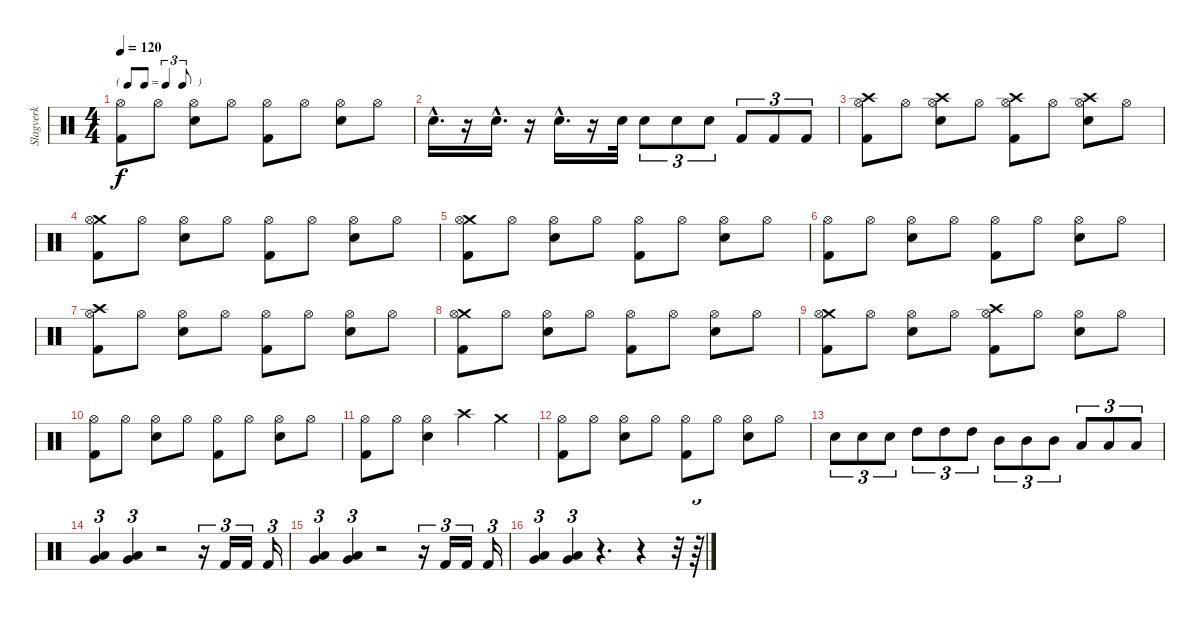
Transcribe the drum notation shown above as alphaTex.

\track ("Slagverk" "Slagverk") {instrument percussion}
\staff {score}
\articulation defaults
\ts (4 4)
\tf triplet8th
\tempo 120
\clef neutral
\ks c
("Hi-Hat (open)" "Kick (hit) 2").8{dy f} "Hi-Hat (open)".8 ("Electric Snare (hit)" "Hi-Hat (open)").8 "Hi-Hat (open)".8 ("Hi-Hat (open)" "Kick (hit) 2").8 "Hi-Hat (open)".8 ("Electric Snare (hit)" "Hi-Hat (open)").8 "Hi-Hat (open)".8 |
"Electric Snare (hit)"{hac}.16{d} r.16 "Electric Snare (hit)"{hac}.16{d} r.16 "Electric Snare (hit)"{hac}.16{d} r.16 "Electric Snare (hit)".32 "Electric Snare (hit)".8{tu (3 2)} "Electric Snare (hit)".8{tu (3 2)} "Electric Snare (hit)".8{tu (3 2)} "Kick (hit) 2".8{tu (3 2)} "Kick (hit) 2".8{tu (3 2)} "Kick (hit) 2".8{tu (3 2)} |
("Crash high (hit)" "Hi-Hat (open)" "Kick (hit) 2").8 "Hi-Hat (open)".8 ("Crash high (hit)" "Electric Snare (hit)" "Hi-Hat (open)").8 "Hi-Hat (open)".8 ("Crash high (hit)" "Hi-Hat (open)" "Kick (hit) 2").8 "Hi-Hat (open)".8 ("Crash high (hit)" "Electric Snare (hit)" "Hi-Hat (open)").8 "Hi-Hat (open)".8 |
("Crash medium (hit)" "Hi-Hat (open)" "Kick (hit) 2").8 "Hi-Hat (open)".8 ("Electric Snare (hit)" "Hi-Hat (open)").8 "Hi-Hat (open)".8 ("Hi-Hat (open)" "Kick (hit) 2").8 "Hi-Hat (open)".8 ("Electric Snare (hit)" "Hi-Hat (open)").8 "Hi-Hat (open)".8 |
("Crash medium (hit)" "Hi-Hat (open)" "Kick (hit) 2").8 "Hi-Hat (open)".8 ("Electric Snare (hit)" "Hi-Hat (open)").8 "Hi-Hat (open)".8 ("Hi-Hat (open)" "Kick (hit) 2").8 "Hi-Hat (open)".8 ("Electric Snare (hit)" "Hi-Hat (open)").8 "Hi-Hat (open)".8 |
("Hi-Hat (open)" "Kick (hit) 2").8 "Hi-Hat (open)".8 ("Electric Snare (hit)" "Hi-Hat (open)").8 "Hi-Hat (open)".8 ("Hi-Hat (open)" "Kick (hit) 2").8 "Hi-Hat (open)".8 ("Electric Snare (hit)" "Hi-Hat (open)").8 "Hi-Hat (open)".8 |
("Crash high (hit)" "Hi-Hat (open)" "Kick (hit) 2").8 "Hi-Hat (open)".8 ("Electric Snare (hit)" "Hi-Hat (open)").8 "Hi-Hat (open)".8 ("Hi-Hat (open)" "Kick (hit) 2").8 "Hi-Hat (open)".8 ("Electric Snare (hit)" "Hi-Hat (open)").8 "Hi-Hat (open)".8 |
("Crash medium (hit)" "Hi-Hat (open)" "Kick (hit) 2").8 "Hi-Hat (open)".8 ("Electric Snare (hit)" "Hi-Hat (open)").8 "Hi-Hat (open)".8 ("Hi-Hat (open)" "Kick (hit) 2").8 "Hi-Hat (open)".8 ("Electric Snare (hit)" "Hi-Hat (open)").8 "Hi-Hat (open)".8 |
("Crash medium (hit)" "Hi-Hat (open)" "Kick (hit) 2").8 "Hi-Hat (open)".8 ("Electric Snare (hit)" "Hi-Hat (open)").8 "Hi-Hat (open)".8 ("Crash high (hit)" "Hi-Hat (open)" "Kick (hit) 2").8 "Hi-Hat (open)".8 ("Electric Snare (hit)" "Hi-Hat (open)").8 "Hi-Hat (open)".8 |
("Hi-Hat (open)" "Kick (hit) 2").8 "Hi-Hat (open)".8 ("Electric Snare (hit)" "Hi-Hat (open)").8 "Hi-Hat (open)".8 ("Hi-Hat (open)" "Kick (hit) 2").8 "Hi-Hat (open)".8 ("Electric Snare (hit)" "Hi-Hat (open)").8 "Hi-Hat (open)".8 |
("Hi-Hat (open)" "Kick (hit) 2").8 "Hi-Hat (open)".8 ("Electric Snare (hit)" "Hi-Hat (open)").4 "Crash high (hit)".4 "Crash medium (hit)".4 |
("Hi-Hat (open)" "Kick (hit) 2").8 "Hi-Hat (open)".8 ("Electric Snare (hit)" "Hi-Hat (open)").8 "Hi-Hat (open)".8 ("Hi-Hat (open)" "Kick (hit) 2").8 "Hi-Hat (open)".8 ("Electric Snare (hit)" "Hi-Hat (open)").8 "Hi-Hat (open)".8 |
"Electric Snare (hit)".8{tu (3 2)} "Electric Snare (hit)".8{tu (3 2)} "Electric Snare (hit)".8{tu (3 2)} "High Tom (hit)".8{tu (3 2)} "High Tom (hit)".8{tu (3 2)} "High Tom (hit)".8{tu (3 2)} "Mid Tom (hit)".8{tu (3 2)} "Mid Tom (hit)".8{tu (3 2)} "Mid Tom (hit)".8{tu (3 2)} "Low Tom (hit)".8{tu (3 2)} "Low Tom (hit)".8{tu (3 2)} "Low Tom (hit)".8{tu (3 2)} |
("Low Tom (hit)" "Very Low Tom (hit)").4{tu (3 2)} ("Low Tom (hit)" "Very Low Tom (hit)").4{tu (3 2)} r.2 r.16{tu (3 2)} "Kick (hit) 2".16{tu (3 2)} "Kick (hit) 2".16{tu (3 2)} "Kick (hit) 2".16{tu (3 2)} |
("Low Tom (hit)" "Very Low Tom (hit)").4{tu (3 2)} ("Low Tom (hit)" "Very Low Tom (hit)").4{tu (3 2)} r.2 r.16{tu (3 2)} "Kick (hit) 2".16{tu (3 2)} "Kick (hit) 2".16{tu (3 2)} "Kick (hit) 2".16{tu (3 2)} |
("Low Tom (hit)" "Very Low Tom (hit)").4{tu (3 2)} ("Low Tom (hit)" "Very Low Tom (hit)").4{tu (3 2)} r.4{d} r.4 r.32 r.64{tu (3 2)}
